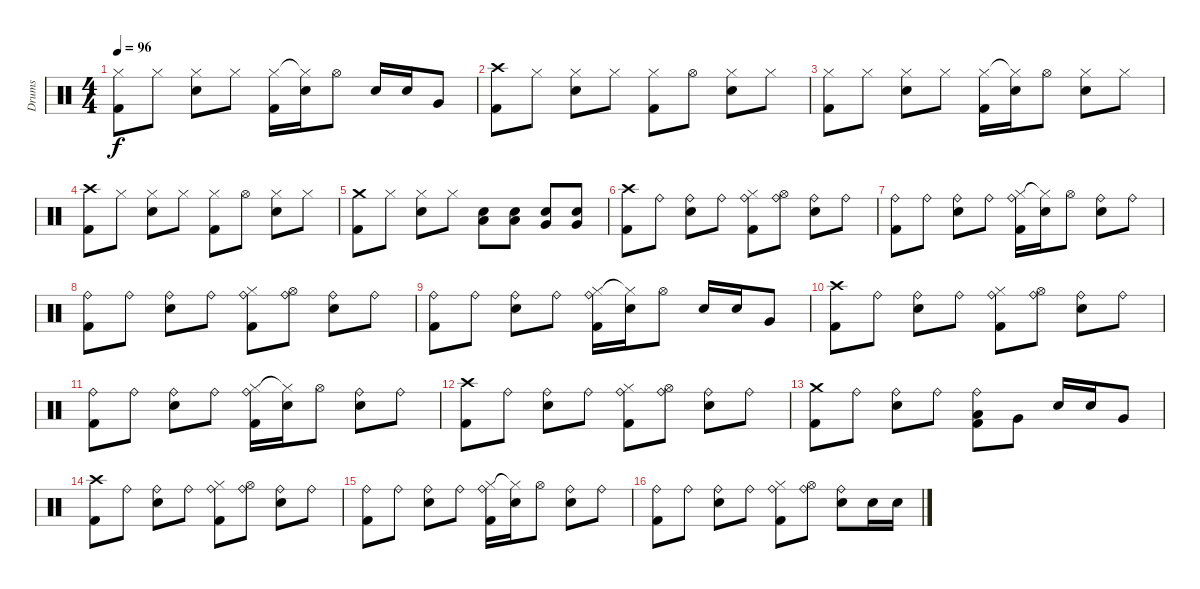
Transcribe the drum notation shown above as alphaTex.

\track ("Drums" "Drums") {instrument percussion}
\staff {score}
\articulation defaults
\ts (4 4)
\tempo 96
\clef neutral
\ks c
("Hi-Hat (closed)" "Kick (hit) 2").8{dy f} "Hi-Hat (closed)".8 ("Hi-Hat (closed)" "Electric Snare (hit)").8 "Hi-Hat (closed)".8 ("Hi-Hat (closed)" "Kick (hit) 2").16 ("Hi-Hat (closed)"{t} "Electric Snare (hit)").16 "Hi-Hat (open)".8 "Electric Snare (hit)".16 "Electric Snare (hit)".16 "Very Low Tom (hit)".8 |
("Crash high (hit)" "Kick (hit) 2").8 "Hi-Hat (closed)".8 ("Hi-Hat (closed)" "Electric Snare (hit)").8 "Hi-Hat (closed)".8 ("Hi-Hat (closed)" "Kick (hit) 2").8 "Hi-Hat (open)".8 ("Hi-Hat (closed)" "Electric Snare (hit)").8 "Hi-Hat (closed)".8 |
("Hi-Hat (closed)" "Kick (hit) 2").8 "Hi-Hat (closed)".8 ("Hi-Hat (closed)" "Electric Snare (hit)").8 "Hi-Hat (closed)".8 ("Hi-Hat (closed)" "Kick (hit) 2").16 ("Hi-Hat (closed)"{t} "Electric Snare (hit)").16 "Hi-Hat (open)".8 ("Hi-Hat (closed)" "Electric Snare (hit)").8 "Hi-Hat (closed)".8 |
("Crash high (hit)" "Kick (hit) 2").8 "Hi-Hat (closed)".8 ("Hi-Hat (closed)" "Electric Snare (hit)").8 "Hi-Hat (closed)".8 ("Hi-Hat (closed)" "Kick (hit) 2").8 "Hi-Hat (open)".8 ("Hi-Hat (closed)" "Electric Snare (hit)").8 "Hi-Hat (closed)".8 |
("Crash medium (hit)" "Kick (hit) 2").8 "Hi-Hat (closed)".8 ("Hi-Hat (closed)" "Electric Snare (hit)").8 "Hi-Hat (closed)".8 ("Electric Snare (hit)" "Low Tom (hit)").8 ("Electric Snare (hit)" "Low Tom (hit)").8 ("Electric Snare (hit)" "Very Low Tom (hit)").8 ("Electric Snare (hit)" "Very Low Tom (hit)").8 |
("Crash high (hit)" "Kick (hit) 2").8 "Ride (bell)".8 ("Ride (bell)" "Electric Snare (hit)").8 "Ride (bell)".8 ("Ride (bell)" "Hi-Hat (closed)" "Kick (hit) 2").8 ("Ride (bell)" "Hi-Hat (open)").8 ("Ride (bell)" "Electric Snare (hit)").8 "Ride (bell)".8 |
("Ride (bell)" "Kick (hit) 2").8 "Ride (bell)".8 ("Ride (bell)" "Electric Snare (hit)").8 "Ride (bell)".8 ("Ride (bell)" "Hi-Hat (closed)" "Kick (hit) 2").16 ("Hi-Hat (closed)"{t} "Electric Snare (hit)").16 "Hi-Hat (open)".8 ("Ride (bell)" "Electric Snare (hit)").8 "Ride (bell)".8 |
("Ride (bell)" "Kick (hit) 2").8 "Ride (bell)".8 ("Ride (bell)" "Electric Snare (hit)").8 "Ride (bell)".8 ("Ride (bell)" "Hi-Hat (closed)" "Kick (hit) 2").8 ("Ride (bell)" "Hi-Hat (open)").8 ("Ride (bell)" "Electric Snare (hit)").8 "Ride (bell)".8 |
("Ride (bell)" "Kick (hit) 2").8 "Ride (bell)".8 ("Ride (bell)" "Electric Snare (hit)").8 "Ride (bell)".8 ("Ride (bell)" "Hi-Hat (closed)" "Kick (hit) 2").16 ("Hi-Hat (closed)"{t} "Electric Snare (hit)").16 "Hi-Hat (open)".8 "Electric Snare (hit)".16 "Electric Snare (hit)".16 "Very Low Tom (hit)".8 |
("Crash high (hit)" "Kick (hit) 2").8 "Ride (bell)".8 ("Ride (bell)" "Electric Snare (hit)").8 "Ride (bell)".8 ("Ride (bell)" "Hi-Hat (closed)" "Kick (hit) 2").8 ("Ride (bell)" "Hi-Hat (open)").8 ("Ride (bell)" "Electric Snare (hit)").8 "Ride (bell)".8 |
("Ride (bell)" "Kick (hit) 2").8 "Ride (bell)".8 ("Ride (bell)" "Electric Snare (hit)").8 "Ride (bell)".8 ("Ride (bell)" "Hi-Hat (closed)" "Kick (hit) 2").16 ("Hi-Hat (closed)"{t} "Electric Snare (hit)").16 "Hi-Hat (open)".8 ("Ride (bell)" "Electric Snare (hit)").8 "Ride (bell)".8 |
("Crash high (hit)" "Kick (hit) 2").8 "Ride (bell)".8 ("Ride (bell)" "Electric Snare (hit)").8 "Ride (bell)".8 ("Ride (bell)" "Hi-Hat (closed)" "Kick (hit) 2").8 ("Ride (bell)" "Hi-Hat (open)").8 ("Ride (bell)" "Electric Snare (hit)").8 "Ride (bell)".8 |
("Crash medium (hit)" "Kick (hit) 2").8 "Ride (bell)".8 ("Ride (bell)" "Electric Snare (hit)").8 "Ride (bell)".8 ("Ride (bell)" "Low Tom (hit)" "Kick (hit) 2").8 "Very Low Tom (hit)".8 "Electric Snare (hit)".16 "Electric Snare (hit)".16 "Very Low Tom (hit)".8 |
("Crash high (hit)" "Kick (hit) 2").8 "Ride (bell)".8 ("Ride (bell)" "Electric Snare (hit)").8 "Ride (bell)".8 ("Ride (bell)" "Hi-Hat (closed)" "Kick (hit) 2").8 ("Ride (bell)" "Hi-Hat (open)").8 ("Ride (bell)" "Electric Snare (hit)").8 "Ride (bell)".8 |
("Ride (bell)" "Kick (hit) 2").8 "Ride (bell)".8 ("Ride (bell)" "Electric Snare (hit)").8 "Ride (bell)".8 ("Ride (bell)" "Hi-Hat (closed)" "Kick (hit) 2").16 ("Hi-Hat (closed)"{t} "Electric Snare (hit)").16 "Hi-Hat (open)".8 ("Ride (bell)" "Electric Snare (hit)").8 "Ride (bell)".8 |
("Ride (bell)" "Kick (hit) 2").8 "Ride (bell)".8 ("Ride (bell)" "Electric Snare (hit)").8 "Ride (bell)".8 ("Ride (bell)" "Hi-Hat (closed)" "Kick (hit) 2").8 ("Ride (bell)" "Hi-Hat (open)").8 ("Ride (bell)" "Electric Snare (hit)").8 "Electric Snare (hit)".16 "Electric Snare (hit)".16
